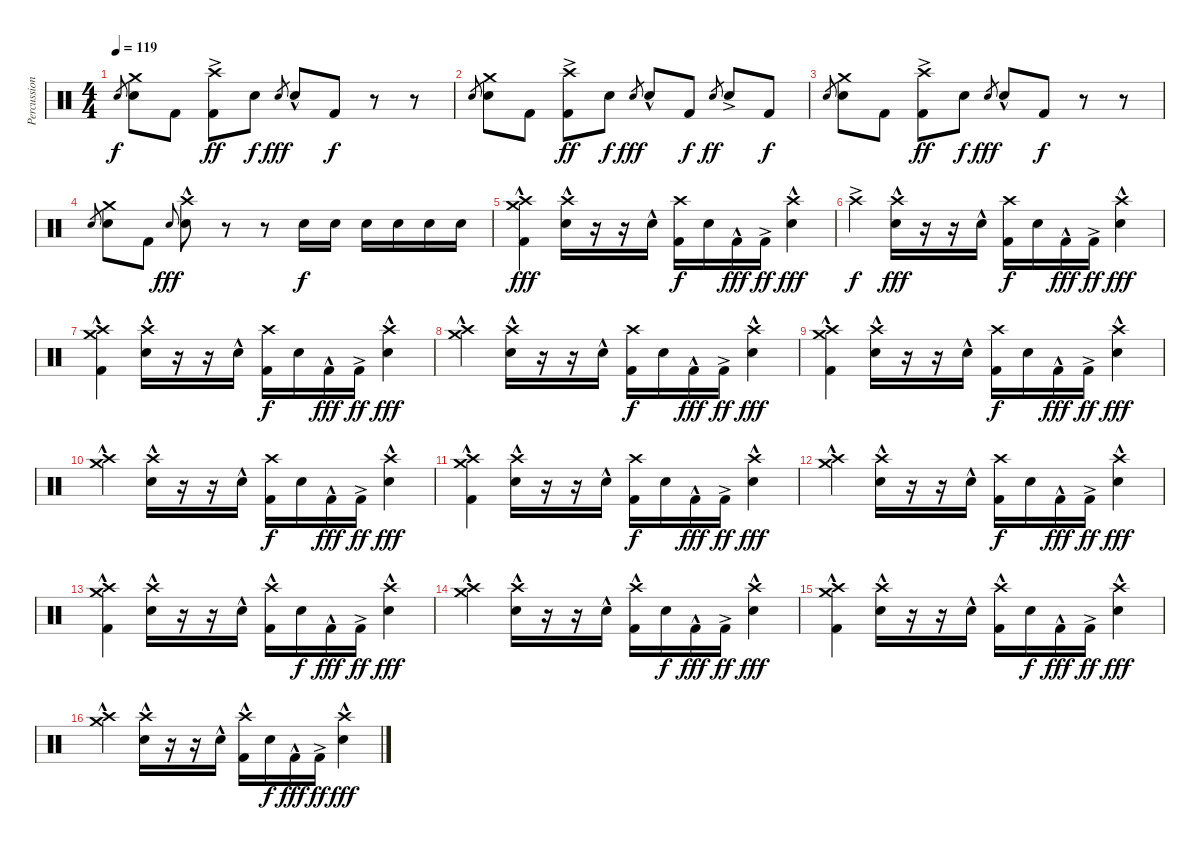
\track ("Percussion" "Percussion") {instrument percussion}
\staff {score}
\articulation defaults
\ts (4 4)
\tempo 119
\clef neutral
\ks c "Electric Snare (hit)".8{gr dy f}
("Crash medium (hit)" "Electric Snare (hit)").8 "Kick (hit) 2".8 ("Crash high (hit)" "Kick (hit) 2"{ac}).8{dy ff} "Electric Snare (hit)".8{dy f} "Electric Snare (hit)".8{gr dy fff} "Electric Snare (hit)"{hac}.8 "Kick (hit) 2".8{dy f} r.8 r.8 |
"Electric Snare (hit)".8{gr} ("Crash medium (hit)" "Electric Snare (hit)").8 "Kick (hit) 2".8 ("Crash high (hit)" "Kick (hit) 2"{ac}).8{dy ff} "Electric Snare (hit)".8{dy f} "Electric Snare (hit)".8{gr dy fff} "Electric Snare (hit)"{hac}.8 "Kick (hit) 2".8{dy f} "Electric Snare (hit)".8{gr dy ff} "Electric Snare (hit)"{ac}.8 "Kick (hit) 2".8{dy f} |
"Electric Snare (hit)".8{gr} ("Crash medium (hit)" "Electric Snare (hit)").8 "Kick (hit) 2".8 ("Crash high (hit)" "Kick (hit) 2"{ac}).8{dy ff} "Electric Snare (hit)".8{dy f} "Electric Snare (hit)".8{gr dy fff} "Electric Snare (hit)"{hac}.8 "Kick (hit) 2".8{dy f} r.8 r.8 |
"Electric Snare (hit)".8{gr} ("Crash medium (hit)" "Electric Snare (hit)").8 "Kick (hit) 2".8 "Electric Snare (hit)".8{gr onbeat dy fff} ("Crash high (hit)" "Electric Snare (hit)"{hac}).8 r.8 r.8 "Electric Snare (hit)".16{dy f} "Electric Snare (hit)".16 "Electric Snare (hit)".16 "Electric Snare (hit)".16 "Electric Snare (hit)".16 "Electric Snare (hit)".16 |
("Crash high (hit)" "Crash medium (hit)"{hac} "Kick (hit) 2").4{dy fff} ("Crash high (hit)" "Electric Snare (hit)"{hac}).16 r.16 r.16 "Electric Snare (hit)"{hac}.16 ("Crash high (hit)" "Kick (hit) 2").16{dy f} "Electric Snare (hit)".16 "Kick (hit) 2"{hac}.16{dy fff} "Kick (hit) 2"{ac}.16{dy ff} ("Crash high (hit)" "Electric Snare (hit)"{hac}).4{dy fff} |
"Crash high (hit)"{ac}.4{dy f} ("Crash high (hit)" "Electric Snare (hit)"{hac}).16{dy fff} r.16 r.16 "Electric Snare (hit)"{hac}.16 ("Crash high (hit)" "Kick (hit) 2").16{dy f} "Electric Snare (hit)".16 "Kick (hit) 2"{hac}.16{dy fff} "Kick (hit) 2"{ac}.16{dy ff} ("Crash high (hit)" "Electric Snare (hit)"{hac}).4{dy fff} |
("Crash high (hit)" "Crash medium (hit)"{hac} "Kick (hit) 2").4 ("Crash high (hit)" "Electric Snare (hit)"{hac}).16 r.16 r.16 "Electric Snare (hit)"{hac}.16 ("Crash high (hit)" "Kick (hit) 2").16{dy f} "Electric Snare (hit)".16 "Kick (hit) 2"{hac}.16{dy fff} "Kick (hit) 2"{ac}.16{dy ff} ("Crash high (hit)" "Electric Snare (hit)"{hac}).4{dy fff} |
("Crash high (hit)" "Crash medium (hit)"{hac}).4 ("Crash high (hit)" "Electric Snare (hit)"{hac}).16 r.16 r.16 "Electric Snare (hit)"{hac}.16 ("Crash high (hit)" "Kick (hit) 2").16{dy f} "Electric Snare (hit)".16 "Kick (hit) 2"{hac}.16{dy fff} "Kick (hit) 2"{ac}.16{dy ff} ("Crash high (hit)" "Electric Snare (hit)"{hac}).4{dy fff} |
("Crash high (hit)" "Crash medium (hit)"{hac} "Kick (hit) 2").4 ("Crash high (hit)" "Electric Snare (hit)"{hac}).16 r.16 r.16 "Electric Snare (hit)"{hac}.16 ("Crash high (hit)" "Kick (hit) 2").16{dy f} "Electric Snare (hit)".16 "Kick (hit) 2"{hac}.16{dy fff} "Kick (hit) 2"{ac}.16{dy ff} ("Crash high (hit)" "Electric Snare (hit)"{hac}).4{dy fff} |
("Crash high (hit)" "Crash medium (hit)"{hac}).4 ("Crash high (hit)" "Electric Snare (hit)"{hac}).16 r.16 r.16 "Electric Snare (hit)"{hac}.16 ("Crash high (hit)" "Kick (hit) 2").16{dy f} "Electric Snare (hit)".16 "Kick (hit) 2"{hac}.16{dy fff} "Kick (hit) 2"{ac}.16{dy ff} ("Crash high (hit)" "Electric Snare (hit)"{hac}).4{dy fff} |
("Crash high (hit)" "Crash medium (hit)"{hac} "Kick (hit) 2").4 ("Crash high (hit)" "Electric Snare (hit)"{hac}).16 r.16 r.16 "Electric Snare (hit)"{hac}.16 ("Crash high (hit)" "Kick (hit) 2").16{dy f} "Electric Snare (hit)".16 "Kick (hit) 2"{hac}.16{dy fff} "Kick (hit) 2"{ac}.16{dy ff} ("Crash high (hit)" "Electric Snare (hit)"{hac}).4{dy fff} |
("Crash high (hit)" "Crash medium (hit)"{hac}).4 ("Crash high (hit)" "Electric Snare (hit)"{hac}).16 r.16 r.16 "Electric Snare (hit)"{hac}.16 ("Crash high (hit)" "Kick (hit) 2").16{dy f} "Electric Snare (hit)".16 "Kick (hit) 2"{hac}.16{dy fff} "Kick (hit) 2"{ac}.16{dy ff} ("Crash high (hit)" "Electric Snare (hit)"{hac}).4{dy fff} |
("Crash high (hit)"{hac} "Crash medium (hit)"{hac} "Kick (hit) 2").4 ("Crash high (hit)"{hac} "Electric Snare (hit)"{hac}).16 r.16 r.16 "Electric Snare (hit)"{hac}.16 ("Crash high (hit)"{hac} "Kick (hit) 2").16 "Electric Snare (hit)".16{dy f} "Kick (hit) 2"{hac}.16{dy fff} "Kick (hit) 2"{ac}.16{dy ff} ("Crash high (hit)"{hac} "Electric Snare (hit)"{hac}).4{dy fff} |
("Crash high (hit)"{hac} "Crash medium (hit)"{hac}).4 ("Crash high (hit)"{hac} "Electric Snare (hit)"{hac}).16 r.16 r.16 "Electric Snare (hit)"{hac}.16 ("Crash high (hit)"{hac} "Kick (hit) 2").16 "Electric Snare (hit)".16{dy f} "Kick (hit) 2"{hac}.16{dy fff} "Kick (hit) 2"{ac}.16{dy ff} ("Crash high (hit)"{hac} "Electric Snare (hit)"{hac}).4{dy fff} |
("Crash high (hit)"{hac} "Crash medium (hit)"{hac} "Kick (hit) 2").4 ("Crash high (hit)"{hac} "Electric Snare (hit)"{hac}).16 r.16 r.16 "Electric Snare (hit)"{hac}.16 ("Crash high (hit)"{hac} "Kick (hit) 2").16 "Electric Snare (hit)".16{dy f} "Kick (hit) 2"{hac}.16{dy fff} "Kick (hit) 2"{ac}.16{dy ff} ("Crash high (hit)"{hac} "Electric Snare (hit)"{hac}).4{dy fff} |
("Crash high (hit)"{hac} "Crash medium (hit)"{hac}).4 ("Crash high (hit)"{hac} "Electric Snare (hit)"{hac}).16 r.16 r.16 "Electric Snare (hit)"{hac}.16 ("Crash high (hit)"{hac} "Kick (hit) 2").16 "Electric Snare (hit)".16{dy f} "Kick (hit) 2"{hac}.16{dy fff} "Kick (hit) 2"{ac}.16{dy ff} ("Crash high (hit)"{hac} "Electric Snare (hit)"{hac}).4{dy fff}
